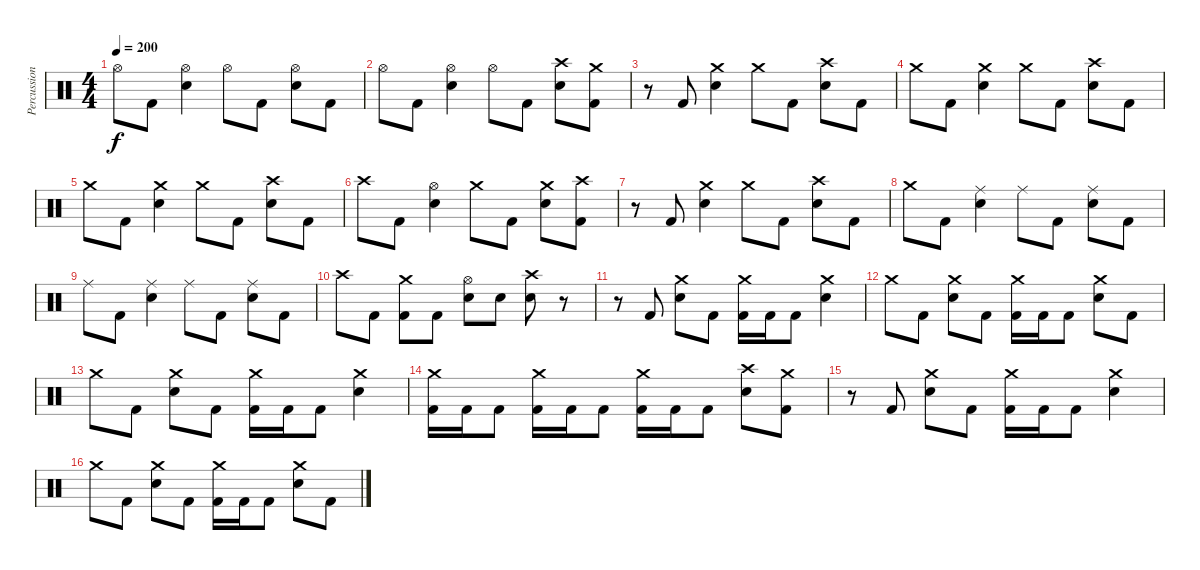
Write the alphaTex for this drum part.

\track ("Percussion" "Percussion") {instrument percussion}
\staff {score}
\articulation defaults
\ts (4 4)
\tempo 200
\clef neutral
\ks c "Hi-Hat (open)".8{dy f} "Kick (hit) 2".8
("Hi-Hat (open)" "Snare (hit) 2").4 "Hi-Hat (open)".8 "Kick (hit) 2".8 ("Hi-Hat (open)" "Snare (hit) 2").8 "Kick (hit) 2".8 |
"Hi-Hat (open)".8 "Kick (hit) 2".8 ("Hi-Hat (open)" "Snare (hit) 2").4 "Hi-Hat (open)".8 "Kick (hit) 2".8 ("Crash high (hit)" "Snare (hit) 2").8 ("Crash medium (hit)" "Kick (hit) 2").8 |
r.8 "Kick (hit) 2".8 ("Crash medium (hit)" "Snare (hit) 2").4 "Crash medium (hit)".8 "Kick (hit) 2".8 ("Crash high (hit)" "Snare (hit) 2").8 "Kick (hit) 2".8 |
"Crash medium (hit)".8 "Kick (hit) 2".8 ("Crash medium (hit)" "Snare (hit) 2").4 "Crash medium (hit)".8 "Kick (hit) 2".8 ("Crash high (hit)" "Snare (hit) 2").8 "Kick (hit) 2".8 |
"Crash medium (hit)".8 "Kick (hit) 2".8 ("Crash medium (hit)" "Snare (hit) 2").4 "Crash medium (hit)".8 "Kick (hit) 2".8 ("Crash high (hit)" "Snare (hit) 2").8 "Kick (hit) 2".8 |
"Crash high (hit)".8 "Kick (hit) 2".8 ("Hi-Hat (open)" "Snare (hit) 2").4 "Crash medium (hit)".8 "Kick (hit) 2".8 ("Crash medium (hit)" "Snare (hit) 2").8 ("Crash high (hit)" "Kick (hit) 2").8 |
r.8 "Kick (hit) 2".8 ("Crash medium (hit)" "Snare (hit) 2").4 "Crash medium (hit)".8 "Kick (hit) 2".8 ("Crash high (hit)" "Snare (hit) 2").8 "Kick (hit) 2".8 |
"Crash medium (hit)".8 "Kick (hit) 2".8 ("Ride (middle)" "Snare (hit) 2").4 "Ride (middle)".8 "Kick (hit) 2".8 ("Ride (middle)" "Snare (hit) 2").8 "Kick (hit) 2".8 |
"Ride (middle)".8 "Kick (hit) 2".8 ("Ride (middle)" "Snare (hit) 2").4 "Ride (middle)".8 "Kick (hit) 2".8 ("Ride (middle)" "Snare (hit) 2").8 "Kick (hit) 2".8 |
"Crash high (hit)".8 "Kick (hit) 2".8 ("Crash medium (hit)" "Kick (hit) 2").8 "Kick (hit) 2".8 ("Hi-Hat (open)" "Snare (hit) 2").8 "Snare (hit) 2".8 ("Crash high (hit)" "Snare (hit) 2").8 r.8 |
r.8 "Kick (hit) 2".8 ("Crash medium (hit)" "Snare (hit) 2").8 "Kick (hit) 2".8 ("Crash medium (hit)" "Kick (hit) 2").16 "Kick (hit) 2".16 "Kick (hit) 2".8 ("Crash medium (hit)" "Snare (hit) 2").4 |
"Crash medium (hit)".8 "Kick (hit) 2".8 ("Crash medium (hit)" "Snare (hit) 2").8 "Kick (hit) 2".8 ("Crash medium (hit)" "Kick (hit) 2").16 "Kick (hit) 2".16 "Kick (hit) 2".8 ("Crash medium (hit)" "Snare (hit) 2").8 "Kick (hit) 2".8 |
"Crash medium (hit)".8 "Kick (hit) 2".8 ("Crash medium (hit)" "Snare (hit) 2").8 "Kick (hit) 2".8 ("Crash medium (hit)" "Kick (hit) 2").16 "Kick (hit) 2".16 "Kick (hit) 2".8 ("Crash medium (hit)" "Snare (hit) 2").4 |
("Crash medium (hit)" "Kick (hit) 2").16 "Kick (hit) 2".16 "Kick (hit) 2".8 ("Crash medium (hit)" "Kick (hit) 2").16 "Kick (hit) 2".16 "Kick (hit) 2".8 ("Crash medium (hit)" "Kick (hit) 2").16 "Kick (hit) 2".16 "Kick (hit) 2".8 ("Crash high (hit)" "Snare (hit) 2").8 ("Crash medium (hit)" "Kick (hit) 2").8 |
r.8 "Kick (hit) 2".8 ("Crash medium (hit)" "Snare (hit) 2").8 "Kick (hit) 2".8 ("Crash medium (hit)" "Kick (hit) 2").16 "Kick (hit) 2".16 "Kick (hit) 2".8 ("Crash medium (hit)" "Snare (hit) 2").4 |
"Crash medium (hit)".8 "Kick (hit) 2".8 ("Crash medium (hit)" "Snare (hit) 2").8 "Kick (hit) 2".8 ("Crash medium (hit)" "Kick (hit) 2").16 "Kick (hit) 2".16 "Kick (hit) 2".8 ("Crash medium (hit)" "Snare (hit) 2").8 "Kick (hit) 2".8
